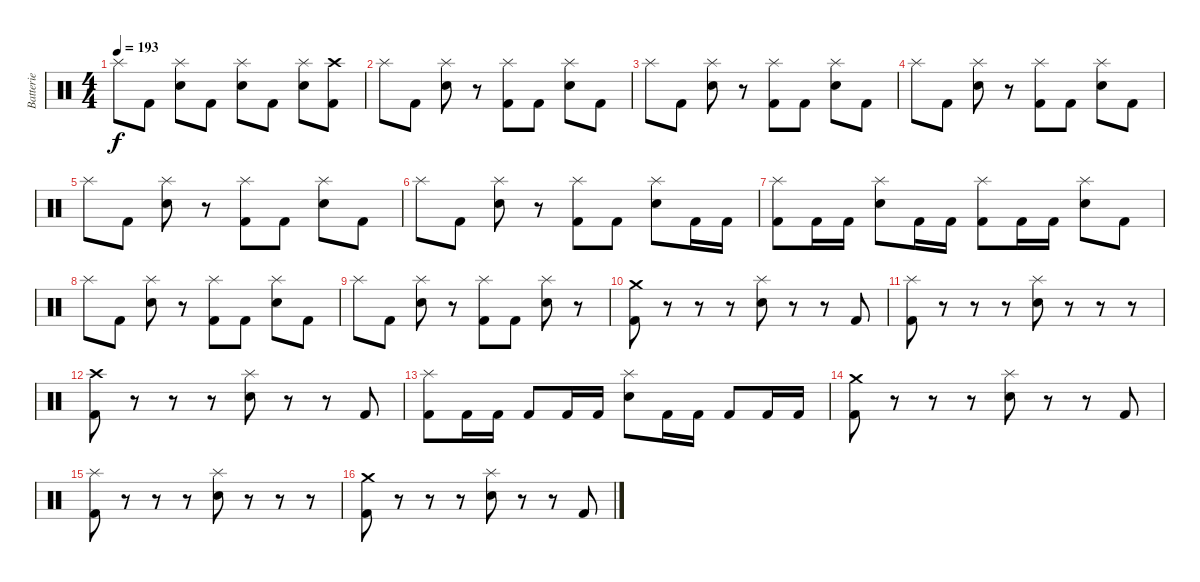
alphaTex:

\track ("Batterie" "Batterie") {instrument percussion}
\staff {score}
\articulation defaults
\ts (4 4)
\tempo 193
\clef neutral
\ks c "Splash (hit)".8{dy f} "Kick (hit) 2".8
("Electric Snare (hit)" "Splash (hit)").8 "Kick (hit) 2".8 ("Electric Snare (hit)" "Splash (hit)").8 "Kick (hit) 2".8 ("Electric Snare (hit)" "Splash (hit)").8 ("Kick (hit) 2" "Crash high (hit)").8 |
"Splash (hit)".8 "Kick (hit) 2".8 ("Electric Snare (hit)" "Splash (hit)").8 r.8 ("Kick (hit) 2" "Splash (hit)").8 "Kick (hit) 2".8 ("Electric Snare (hit)" "Splash (hit)").8 "Kick (hit) 2".8 |
"Splash (hit)".8 "Kick (hit) 2".8 ("Electric Snare (hit)" "Splash (hit)").8 r.8 ("Kick (hit) 2" "Splash (hit)").8 "Kick (hit) 2".8 ("Electric Snare (hit)" "Splash (hit)").8 "Kick (hit) 2".8 |
"Splash (hit)".8 "Kick (hit) 2".8 ("Electric Snare (hit)" "Splash (hit)").8 r.8 ("Kick (hit) 2" "Splash (hit)").8 "Kick (hit) 2".8 ("Electric Snare (hit)" "Splash (hit)").8 "Kick (hit) 2".8 |
"Splash (hit)".8 "Kick (hit) 2".8 ("Electric Snare (hit)" "Splash (hit)").8 r.8 ("Kick (hit) 2" "Splash (hit)").8 "Kick (hit) 2".8 ("Electric Snare (hit)" "Splash (hit)").8 "Kick (hit) 2".8 |
"Splash (hit)".8 "Kick (hit) 2".8 ("Electric Snare (hit)" "Splash (hit)").8 r.8 ("Kick (hit) 2" "Splash (hit)").8 "Kick (hit) 2".8 ("Electric Snare (hit)" "Splash (hit)").8 "Kick (hit) 2".16 "Kick (hit) 2".16 |
("Kick (hit) 2" "Splash (hit)").8 "Kick (hit) 2".16 "Kick (hit) 2".16 ("Electric Snare (hit)" "Splash (hit)").8 "Kick (hit) 2".16 "Kick (hit) 2".16 ("Kick (hit) 2" "Splash (hit)").8 "Kick (hit) 2".16 "Kick (hit) 2".16 ("Electric Snare (hit)" "Splash (hit)").8 "Kick (hit) 2".8 |
"Splash (hit)".8 "Kick (hit) 2".8 ("Electric Snare (hit)" "Splash (hit)").8 r.8 ("Kick (hit) 2" "Splash (hit)").8 "Kick (hit) 2".8 ("Electric Snare (hit)" "Splash (hit)").8 "Kick (hit) 2".8 |
"Splash (hit)".8 "Kick (hit) 2".8 ("Electric Snare (hit)" "Splash (hit)").8 r.8 ("Kick (hit) 2" "Splash (hit)").8 "Kick (hit) 2".8 ("Electric Snare (hit)" "Splash (hit)").8 r.8 |
("Kick (hit) 2" "Crash medium (hit)").8 r.8 r.8 r.8 ("Electric Snare (hit)" "Splash (hit)").8 r.8 r.8 "Kick (hit) 2".8 |
("Kick (hit) 2" "Splash (hit)").8 r.8 r.8 r.8 ("Electric Snare (hit)" "Splash (hit)").8 r.8 r.8 r.8 |
("Kick (hit) 2" "Crash high (hit)").8 r.8 r.8 r.8 ("Electric Snare (hit)" "Splash (hit)").8 r.8 r.8 "Kick (hit) 2".8 |
("Kick (hit) 2" "Splash (hit)").8 "Kick (hit) 2".16 "Kick (hit) 2".16 "Kick (hit) 2".8 "Kick (hit) 2".16 "Kick (hit) 2".16 ("Electric Snare (hit)" "Splash (hit)").8 "Kick (hit) 2".16 "Kick (hit) 2".16 "Kick (hit) 2".8 "Kick (hit) 2".16 "Kick (hit) 2".16 |
("Kick (hit) 2" "Crash medium (hit)").8 r.8 r.8 r.8 ("Electric Snare (hit)" "Splash (hit)").8 r.8 r.8 "Kick (hit) 2".8 |
("Kick (hit) 2" "Splash (hit)").8 r.8 r.8 r.8 ("Electric Snare (hit)" "Splash (hit)").8 r.8 r.8 r.8 |
("Kick (hit) 2" "Crash medium (hit)").8 r.8 r.8 r.8 ("Electric Snare (hit)" "Splash (hit)").8 r.8 r.8 "Kick (hit) 2".8
